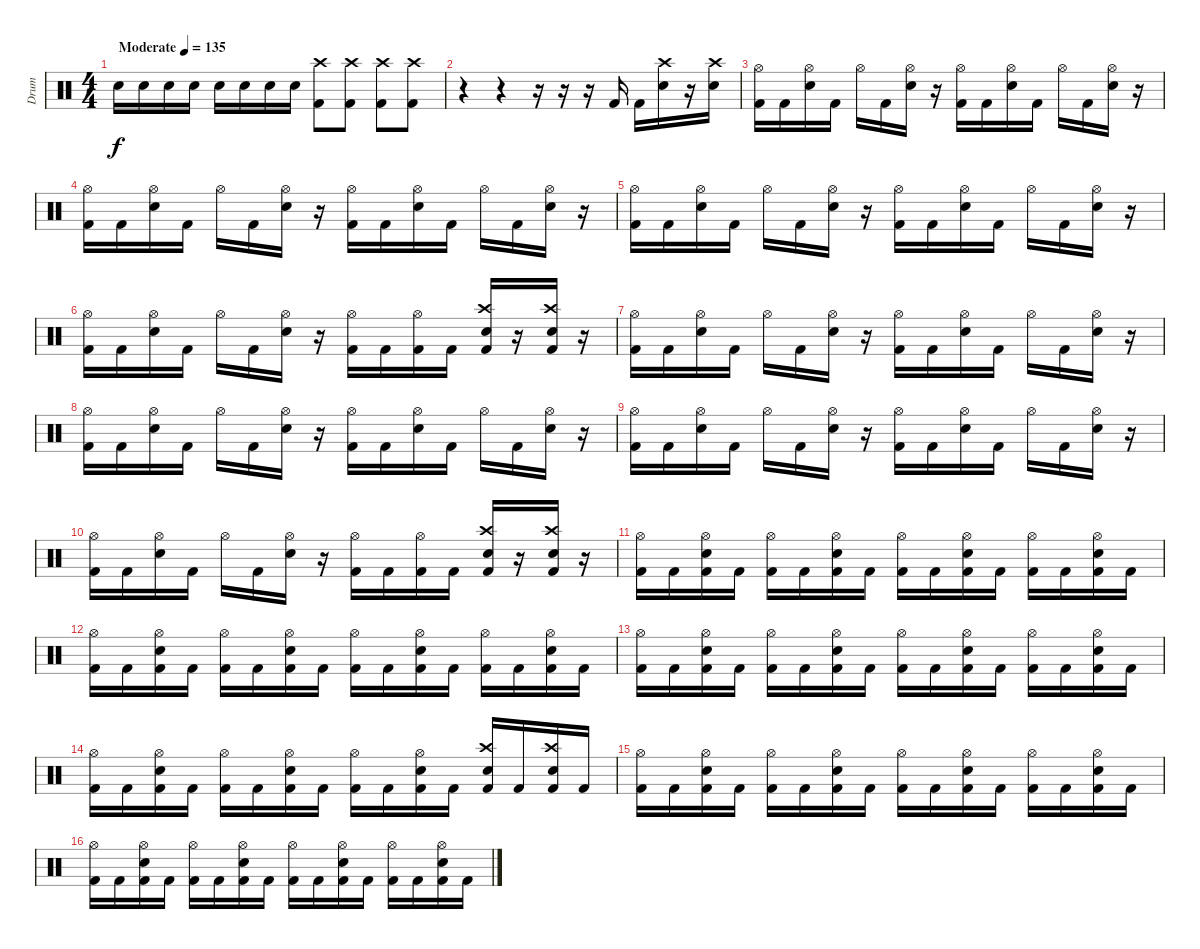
\track ("Drum" "Drum") {instrument percussion}
\staff {score}
\articulation defaults
\ts (4 4)
\tempo (135 "Moderate")
\clef neutral
\ks c "Electric Snare (hit)".16{dy f} "Electric Snare (hit)".16 "Electric Snare (hit)".16 "Electric Snare (hit)".16 "Electric Snare (hit)".16 "Electric Snare (hit)".16 "Electric Snare (hit)".16 "Electric Snare (hit)".16
("Crash high (hit)" "Kick (hit) 2").8 ("Crash high (hit)" "Kick (hit) 2").8 ("Crash high (hit)" "Kick (hit) 2").8 ("Crash high (hit)" "Kick (hit) 2").8 |
r.4 r.4 r.16 r.16 r.16 "Kick (hit) 2".16 "Kick (hit) 2".16 ("Crash high (hit)" "Electric Snare (hit)").16 r.16 ("Crash high (hit)" "Electric Snare (hit)").16 |
("Hi-Hat (open)" "Kick (hit) 2").16 "Kick (hit) 2".16 ("Hi-Hat (open)" "Electric Snare (hit)").16 "Kick (hit) 2".16 "Hi-Hat (open)".16 "Kick (hit) 2".16 ("Hi-Hat (open)" "Electric Snare (hit)").16 r.16 ("Hi-Hat (open)" "Kick (hit) 2").16 "Kick (hit) 2".16 ("Hi-Hat (open)" "Electric Snare (hit)").16 "Kick (hit) 2".16 "Hi-Hat (open)".16 "Kick (hit) 2".16 ("Hi-Hat (open)" "Electric Snare (hit)").16 r.16 |
("Hi-Hat (open)" "Kick (hit) 2").16 "Kick (hit) 2".16 ("Hi-Hat (open)" "Electric Snare (hit)").16 "Kick (hit) 2".16 "Hi-Hat (open)".16 "Kick (hit) 2".16 ("Hi-Hat (open)" "Electric Snare (hit)").16 r.16 ("Hi-Hat (open)" "Kick (hit) 2").16 "Kick (hit) 2".16 ("Hi-Hat (open)" "Electric Snare (hit)").16 "Kick (hit) 2".16 "Hi-Hat (open)".16 "Kick (hit) 2".16 ("Hi-Hat (open)" "Electric Snare (hit)").16 r.16 |
("Hi-Hat (open)" "Kick (hit) 2").16 "Kick (hit) 2".16 ("Hi-Hat (open)" "Electric Snare (hit)").16 "Kick (hit) 2".16 "Hi-Hat (open)".16 "Kick (hit) 2".16 ("Hi-Hat (open)" "Electric Snare (hit)").16 r.16 ("Hi-Hat (open)" "Kick (hit) 2").16 "Kick (hit) 2".16 ("Hi-Hat (open)" "Electric Snare (hit)").16 "Kick (hit) 2".16 "Hi-Hat (open)".16 "Kick (hit) 2".16 ("Hi-Hat (open)" "Electric Snare (hit)").16 r.16 |
("Hi-Hat (open)" "Kick (hit) 2").16 "Kick (hit) 2".16 ("Hi-Hat (open)" "Electric Snare (hit)").16 "Kick (hit) 2".16 "Hi-Hat (open)".16 "Kick (hit) 2".16 ("Hi-Hat (open)" "Electric Snare (hit)").16 r.16 ("Hi-Hat (open)" "Kick (hit) 2").16 "Kick (hit) 2".16 ("Hi-Hat (open)" "Kick (hit) 2").16 "Kick (hit) 2".16 ("Crash high (hit)" "Electric Snare (hit)" "Kick (hit) 2").16 r.16 ("Crash high (hit)" "Electric Snare (hit)" "Kick (hit) 2").16 r.16 |
("Hi-Hat (open)" "Kick (hit) 2").16 "Kick (hit) 2".16 ("Hi-Hat (open)" "Electric Snare (hit)").16 "Kick (hit) 2".16 "Hi-Hat (open)".16 "Kick (hit) 2".16 ("Hi-Hat (open)" "Electric Snare (hit)").16 r.16 ("Hi-Hat (open)" "Kick (hit) 2").16 "Kick (hit) 2".16 ("Hi-Hat (open)" "Electric Snare (hit)").16 "Kick (hit) 2".16 "Hi-Hat (open)".16 "Kick (hit) 2".16 ("Hi-Hat (open)" "Electric Snare (hit)").16 r.16 |
("Hi-Hat (open)" "Kick (hit) 2").16 "Kick (hit) 2".16 ("Hi-Hat (open)" "Electric Snare (hit)").16 "Kick (hit) 2".16 "Hi-Hat (open)".16 "Kick (hit) 2".16 ("Hi-Hat (open)" "Electric Snare (hit)").16 r.16 ("Hi-Hat (open)" "Kick (hit) 2").16 "Kick (hit) 2".16 ("Hi-Hat (open)" "Electric Snare (hit)").16 "Kick (hit) 2".16 "Hi-Hat (open)".16 "Kick (hit) 2".16 ("Hi-Hat (open)" "Electric Snare (hit)").16 r.16 |
("Hi-Hat (open)" "Kick (hit) 2").16 "Kick (hit) 2".16 ("Hi-Hat (open)" "Electric Snare (hit)").16 "Kick (hit) 2".16 "Hi-Hat (open)".16 "Kick (hit) 2".16 ("Hi-Hat (open)" "Electric Snare (hit)").16 r.16 ("Hi-Hat (open)" "Kick (hit) 2").16 "Kick (hit) 2".16 ("Hi-Hat (open)" "Electric Snare (hit)").16 "Kick (hit) 2".16 "Hi-Hat (open)".16 "Kick (hit) 2".16 ("Hi-Hat (open)" "Electric Snare (hit)").16 r.16 |
("Hi-Hat (open)" "Kick (hit) 2").16 "Kick (hit) 2".16 ("Hi-Hat (open)" "Electric Snare (hit)").16 "Kick (hit) 2".16 "Hi-Hat (open)".16 "Kick (hit) 2".16 ("Hi-Hat (open)" "Electric Snare (hit)").16 r.16 ("Hi-Hat (open)" "Kick (hit) 2").16 "Kick (hit) 2".16 ("Hi-Hat (open)" "Kick (hit) 2").16 "Kick (hit) 2".16 ("Crash high (hit)" "Electric Snare (hit)" "Kick (hit) 2").16 r.16 ("Crash high (hit)" "Electric Snare (hit)" "Kick (hit) 2").16 r.16 |
("Hi-Hat (open)" "Kick (hit) 2").16 "Kick (hit) 2".16 ("Hi-Hat (open)" "Electric Snare (hit)" "Kick (hit) 2").16 "Kick (hit) 2".16 ("Hi-Hat (open)" "Kick (hit) 2").16 "Kick (hit) 2".16 ("Hi-Hat (open)" "Electric Snare (hit)" "Kick (hit) 2").16 "Kick (hit) 2".16 ("Hi-Hat (open)" "Kick (hit) 2").16 "Kick (hit) 2".16 ("Hi-Hat (open)" "Electric Snare (hit)" "Kick (hit) 2").16 "Kick (hit) 2".16 ("Hi-Hat (open)" "Kick (hit) 2").16 "Kick (hit) 2".16 ("Hi-Hat (open)" "Electric Snare (hit)" "Kick (hit) 2").16 "Kick (hit) 2".16 |
("Hi-Hat (open)" "Kick (hit) 2").16 "Kick (hit) 2".16 ("Hi-Hat (open)" "Electric Snare (hit)" "Kick (hit) 2").16 "Kick (hit) 2".16 ("Hi-Hat (open)" "Kick (hit) 2").16 "Kick (hit) 2".16 ("Hi-Hat (open)" "Electric Snare (hit)" "Kick (hit) 2").16 "Kick (hit) 2".16 ("Hi-Hat (open)" "Kick (hit) 2").16 "Kick (hit) 2".16 ("Hi-Hat (open)" "Electric Snare (hit)" "Kick (hit) 2").16 "Kick (hit) 2".16 ("Hi-Hat (open)" "Kick (hit) 2").16 "Kick (hit) 2".16 ("Hi-Hat (open)" "Electric Snare (hit)" "Kick (hit) 2").16 "Kick (hit) 2".16 |
("Hi-Hat (open)" "Kick (hit) 2").16 "Kick (hit) 2".16 ("Hi-Hat (open)" "Electric Snare (hit)" "Kick (hit) 2").16 "Kick (hit) 2".16 ("Hi-Hat (open)" "Kick (hit) 2").16 "Kick (hit) 2".16 ("Hi-Hat (open)" "Electric Snare (hit)" "Kick (hit) 2").16 "Kick (hit) 2".16 ("Hi-Hat (open)" "Kick (hit) 2").16 "Kick (hit) 2".16 ("Hi-Hat (open)" "Electric Snare (hit)" "Kick (hit) 2").16 "Kick (hit) 2".16 ("Hi-Hat (open)" "Kick (hit) 2").16 "Kick (hit) 2".16 ("Hi-Hat (open)" "Electric Snare (hit)" "Kick (hit) 2").16 "Kick (hit) 2".16 |
("Hi-Hat (open)" "Kick (hit) 2").16 "Kick (hit) 2".16 ("Hi-Hat (open)" "Electric Snare (hit)" "Kick (hit) 2").16 "Kick (hit) 2".16 ("Hi-Hat (open)" "Kick (hit) 2").16 "Kick (hit) 2".16 ("Hi-Hat (open)" "Electric Snare (hit)" "Kick (hit) 2").16 "Kick (hit) 2".16 ("Hi-Hat (open)" "Kick (hit) 2").16 "Kick (hit) 2".16 ("Hi-Hat (open)" "Electric Snare (hit)" "Kick (hit) 2").16 "Kick (hit) 2".16 ("Crash high (hit)" "Electric Snare (hit)" "Kick (hit) 2").16 "Kick (hit) 2".16 ("Crash high (hit)" "Electric Snare (hit)" "Kick (hit) 2").16 "Kick (hit) 2".16 |
("Hi-Hat (open)" "Kick (hit) 2").16 "Kick (hit) 2".16 ("Hi-Hat (open)" "Electric Snare (hit)" "Kick (hit) 2").16 "Kick (hit) 2".16 ("Hi-Hat (open)" "Kick (hit) 2").16 "Kick (hit) 2".16 ("Hi-Hat (open)" "Electric Snare (hit)" "Kick (hit) 2").16 "Kick (hit) 2".16 ("Hi-Hat (open)" "Kick (hit) 2").16 "Kick (hit) 2".16 ("Hi-Hat (open)" "Electric Snare (hit)" "Kick (hit) 2").16 "Kick (hit) 2".16 ("Hi-Hat (open)" "Kick (hit) 2").16 "Kick (hit) 2".16 ("Hi-Hat (open)" "Electric Snare (hit)" "Kick (hit) 2").16 "Kick (hit) 2".16 |
("Hi-Hat (open)" "Kick (hit) 2").16 "Kick (hit) 2".16 ("Hi-Hat (open)" "Electric Snare (hit)" "Kick (hit) 2").16 "Kick (hit) 2".16 ("Hi-Hat (open)" "Kick (hit) 2").16 "Kick (hit) 2".16 ("Hi-Hat (open)" "Electric Snare (hit)" "Kick (hit) 2").16 "Kick (hit) 2".16 ("Hi-Hat (open)" "Kick (hit) 2").16 "Kick (hit) 2".16 ("Hi-Hat (open)" "Electric Snare (hit)" "Kick (hit) 2").16 "Kick (hit) 2".16 ("Hi-Hat (open)" "Kick (hit) 2").16 "Kick (hit) 2".16 ("Hi-Hat (open)" "Electric Snare (hit)" "Kick (hit) 2").16 "Kick (hit) 2".16
